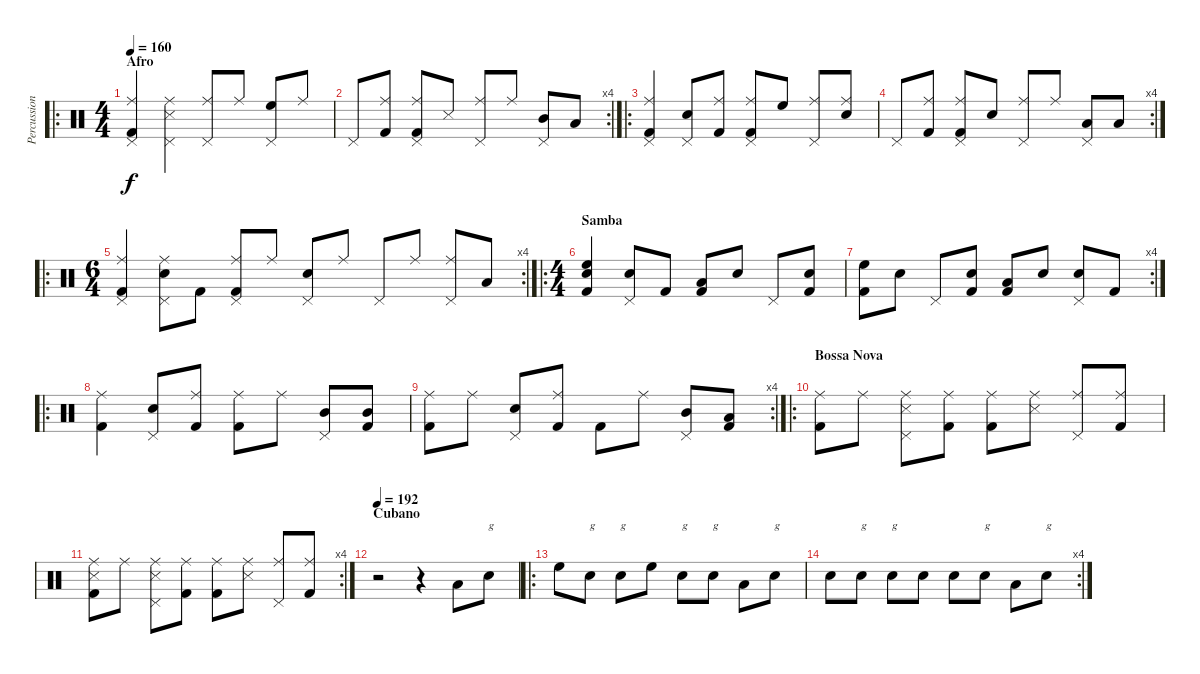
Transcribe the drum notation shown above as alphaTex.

\track ("Percussioni" "Percussion") {instrument percussion}
\staff {score}
\articulation defaults
\ro
\ts (4 4)
\section ("" "Afro")
\tempo 160
\clef neutral
\ks c
("Ride (middle)" "Kick (hit) 2" "Pedal Hi-Hat (hit)").4{dy f} ("Ride (middle)" "Snare (side stick) 3" "Pedal Hi-Hat (hit)").4 ("Ride (middle)" "Pedal Hi-Hat (hit)").8 "Ride (middle)".8 ("High Floor Tom (hit)" "Pedal Hi-Hat (hit)").8 "Ride (middle)".8 |
\rc 4 "Pedal Hi-Hat (hit)".8
("Ride (middle)" "Kick (hit) 2").8 ("Ride (middle)" "Kick (hit) 2" "Pedal Hi-Hat (hit)").8 "Snare (side stick) 3".8 ("Ride (middle)" "Pedal Hi-Hat (hit)").8 "Ride (middle)".8 ("Mid Tom (hit)" "Pedal Hi-Hat (hit)").8 "Low Floor Tom (hit)".8 |
\ro
("Ride (middle)" "Kick (hit) 2" "Pedal Hi-Hat (hit)").4 ("Snare (hit) 2" "Pedal Hi-Hat (hit)").8 ("Ride (middle)" "Kick (hit) 2").8 ("Ride (middle)" "Kick (hit) 2" "Pedal Hi-Hat (hit)").8 "High Floor Tom (hit)".8 ("Ride (middle)" "Pedal Hi-Hat (hit)").8 ("Ride (middle)" "Snare (hit) 2").8 |
\rc 4 "Pedal Hi-Hat (hit)".8
("Ride (middle)" "Kick (hit) 2").8 ("Ride (middle)" "Pedal Hi-Hat (hit)" "Kick (hit) 2").8 "Snare (hit) 2".8 ("Ride (middle)" "Pedal Hi-Hat (hit)").8 "Ride (middle)".8 ("Low Floor Tom (hit)" "Pedal Hi-Hat (hit)").8 "Low Floor Tom (hit)".8 |
\ro
\rc 4
\ts (6 4)
("Ride (middle)" "Kick (hit) 2" "Pedal Hi-Hat (hit)").4 ("Ride (middle)" "Snare (hit) 2" "Pedal Hi-Hat (hit)").8 "Kick (hit) 2".8 ("Ride (middle)" "Pedal Hi-Hat (hit)" "Kick (hit) 2").8 "Ride (middle)".8 ("Snare (hit) 2" "Pedal Hi-Hat (hit)").8 "Ride (middle)".8 "Pedal Hi-Hat (hit)".8 "Ride (middle)".8 ("Ride (middle)" "Pedal Hi-Hat (hit)").8 "Low Floor Tom (hit)".8 |
\ro
\ts (4 4)
\section ("" "Samba")
("High Floor Tom (hit)" "Snare (hit) 2" "Kick (hit) 2").4 ("Snare (hit) 2" "Pedal Hi-Hat (hit)").8 "Kick (hit) 2".8 ("Low Floor Tom (hit)" "Kick (hit) 2").8 "Snare (hit) 2".8 "Pedal Hi-Hat (hit)".8 ("Snare (hit) 2" "Kick (hit) 2").8 |
\rc 4
("High Floor Tom (hit)" "Kick (hit) 2").8 "Snare (hit) 2".8 "Pedal Hi-Hat (hit)".8 ("Snare (hit) 2" "Kick (hit) 2").8 ("Low Floor Tom (hit)" "Kick (hit) 2").8 "Snare (hit) 2".8 ("Snare (hit) 2" "Pedal Hi-Hat (hit)").8 "Kick (hit) 2".8 |
\ro
("Ride (middle)" "Kick (hit) 2").4 ("Snare (hit) 2" "Pedal Hi-Hat (hit)").8 ("Ride (middle)" "Kick (hit) 2").8 ("Ride (middle)" "Kick (hit) 2").8 "Ride (middle)".8 ("Mid Tom (hit)" "Pedal Hi-Hat (hit)").8 ("Mid Tom (hit)" "Kick (hit) 2").8 |
\rc 4
("Ride (middle)" "Kick (hit) 2").8 "Ride (middle)".8 ("Snare (hit) 2" "Pedal Hi-Hat (hit)").8 ("Ride (middle)" "Kick (hit) 2").8 "Kick (hit) 2".8 "Ride (middle)".8 ("Mid Tom (hit)" "Pedal Hi-Hat (hit)").8 ("Low Floor Tom (hit)" "Kick (hit) 2").8 |
\ro
\section ("" "Bossa Nova")
("Ride (middle)" "Kick (hit) 2").8 "Ride (middle)".8 ("Ride (middle)" "Snare (side stick) 3" "Pedal Hi-Hat (hit)").8 ("Ride (middle)" "Kick (hit) 2").8 ("Ride (middle)" "Kick (hit) 2").8 ("Ride (middle)" "Snare (side stick) 3").8 ("Ride (middle)" "Pedal Hi-Hat (hit)").8 ("Ride (middle)" "Kick (hit) 2").8 |
\rc 4
("Ride (middle)" "Snare (side stick) 3" "Kick (hit) 2").8 "Ride (middle)".8 ("Ride (middle)" "Snare (side stick) 3" "Pedal Hi-Hat (hit)").8 ("Ride (middle)" "Kick (hit) 2").8 ("Ride (middle)" "Kick (hit) 2").8 ("Ride (middle)" "Snare (side stick) 3").8 ("Ride (middle)" "Pedal Hi-Hat (hit)").8 ("Ride (middle)" "Kick (hit) 2").8 |
\section ("" "Cubano")
\tempo 192
r.2 r.4 "Low Floor Tom (hit)".8 "Snare (hit) 2".8{txt "g"} |
\ro "High Floor Tom (hit)".8 "Snare (hit) 2".8{txt "g"} "Snare (hit) 2".8{txt "g"} "High Floor Tom (hit)".8 "Snare (hit) 2".8{txt "g"} "Snare (hit) 2".8{txt "g"} "Low Floor Tom (hit)".8 "Snare (hit) 2".8{txt "g"}
|
\rc 4 "Snare (hit) 2".8 "Snare (hit) 2".8{txt "g"} "Snare (hit) 2".8{txt "g"} "Snare (hit) 2".8 "Snare (hit) 2".8 "Snare (hit) 2".8{txt "g"} "Low Floor Tom (hit)".8 "Snare (hit) 2".8{txt "g"}
